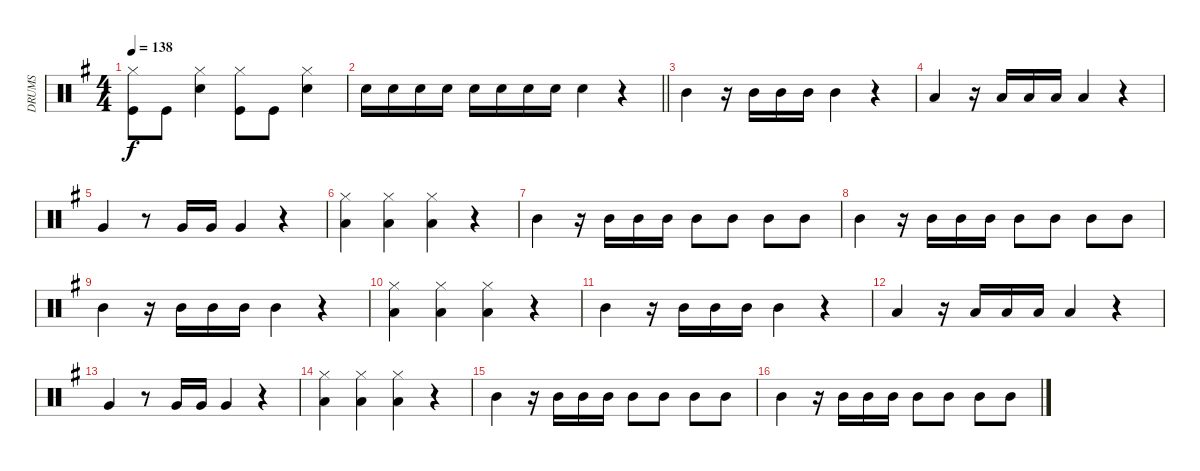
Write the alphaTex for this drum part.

\track ("DRUMS" "DRUMS") {instrument percussion}
\staff {score}
\articulation defaults
\ts (4 4)
\tempo 138
\clef neutral
\ks eminor
("Hi-Hat (closed)" "Kick (hit)").8{dy f} "Kick (hit)".8 ("Hi-Hat (closed)" "Snare (hit) 2").4 ("Hi-Hat (closed)" "Kick (hit)").8 "Kick (hit)".8 ("Hi-Hat (closed)" "Snare (hit) 2").4 |
\barLineRight lightlight "Snare (hit) 2".16 "Snare (hit) 2".16 "Snare (hit) 2".16 "Snare (hit) 2".16 "Snare (hit) 2".16 "Snare (hit) 2".16 "Snare (hit) 2".16 "Snare (hit) 2".16 "Snare (hit) 2".4
r.4 |
"Mid Tom (hit)".4 r.16 "Mid Tom (hit)".16 "Mid Tom (hit)".16 "Mid Tom (hit)".16 "Mid Tom (hit)".4 r.4 |
"Low Tom (hit)".4 r.16 "Low Tom (hit)".16 "Low Tom (hit)".16 "Low Tom (hit)".16 "Low Tom (hit)".4 r.4 |
"Very Low Tom (hit)".4 r.8 "Very Low Tom (hit)".16 "Very Low Tom (hit)".16 "Very Low Tom (hit)".4 r.4 |
("Hi-Hat (closed)" "Low Tom (hit)").4 ("Hi-Hat (closed)" "Low Tom (hit)").4 ("Hi-Hat (closed)" "Low Tom (hit)").4 r.4 |
"Mid Tom (hit)".4 r.16 "Mid Tom (hit)".16 "Mid Tom (hit)".16 "Mid Tom (hit)".16 "Mid Tom (hit)".8 "Mid Tom (hit)".8 "Mid Tom (hit)".8 "Mid Tom (hit)".8 |
"Mid Tom (hit)".4 r.16 "Mid Tom (hit)".16 "Mid Tom (hit)".16 "Mid Tom (hit)".16 "Mid Tom (hit)".8 "Mid Tom (hit)".8 "Mid Tom (hit)".8 "Mid Tom (hit)".8 |
"Mid Tom (hit)".4 r.16 "Mid Tom (hit)".16 "Mid Tom (hit)".16 "Mid Tom (hit)".16 "Mid Tom (hit)".4 r.4 |
("Hi-Hat (closed)" "Low Tom (hit)").4 ("Hi-Hat (closed)" "Low Tom (hit)").4 ("Hi-Hat (closed)" "Low Tom (hit)").4 r.4 |
"Mid Tom (hit)".4 r.16 "Mid Tom (hit)".16 "Mid Tom (hit)".16 "Mid Tom (hit)".16 "Mid Tom (hit)".4 r.4 |
"Low Tom (hit)".4 r.16 "Low Tom (hit)".16 "Low Tom (hit)".16 "Low Tom (hit)".16 "Low Tom (hit)".4 r.4 |
"Very Low Tom (hit)".4 r.8 "Very Low Tom (hit)".16 "Very Low Tom (hit)".16 "Very Low Tom (hit)".4 r.4 |
("Hi-Hat (closed)" "Low Tom (hit)").4 ("Hi-Hat (closed)" "Low Tom (hit)").4 ("Hi-Hat (closed)" "Low Tom (hit)").4 r.4 |
"Mid Tom (hit)".4 r.16 "Mid Tom (hit)".16 "Mid Tom (hit)".16 "Mid Tom (hit)".16 "Mid Tom (hit)".8 "Mid Tom (hit)".8 "Mid Tom (hit)".8 "Mid Tom (hit)".8 |
"Mid Tom (hit)".4 r.16 "Mid Tom (hit)".16 "Mid Tom (hit)".16 "Mid Tom (hit)".16 "Mid Tom (hit)".8 "Mid Tom (hit)".8 "Mid Tom (hit)".8 "Mid Tom (hit)".8
